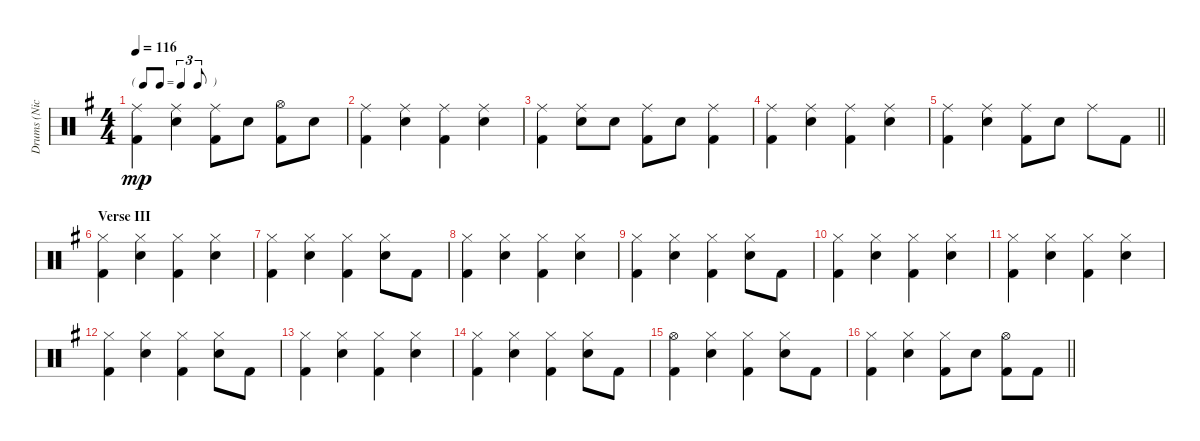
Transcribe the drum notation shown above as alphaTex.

\track ("Drums (Nick Mason)" "Drums (Nic") {instrument percussion}
\staff {score}
\articulation defaults
\ts (4 4)
\tf triplet8th
\tempo 116
\clef neutral
\ks g
("Ride (middle)" "Kick (hit) 2").4{dy mp} ("Ride (middle)" "Snare (hit) 2").4 ("Ride (middle)" "Kick (hit) 2").8 "Snare (hit) 2".8 ("Hi-Hat (open)" "Kick (hit) 2").8 "Snare (hit) 2".8 |
("Ride (middle)" "Kick (hit) 2").4 ("Ride (middle)" "Snare (hit) 2").4 ("Ride (middle)" "Kick (hit) 2").4 ("Ride (middle)" "Snare (hit) 2").4 |
("Ride (middle)" "Kick (hit) 2").4 ("Ride (middle)" "Snare (hit) 2").8 "Snare (hit) 2".8 ("Ride (middle)" "Kick (hit) 2").8 "Snare (hit) 2".8 ("Ride (middle)" "Kick (hit) 2").4 |
("Ride (middle)" "Kick (hit) 2").4 ("Ride (middle)" "Snare (hit) 2").4 ("Ride (middle)" "Kick (hit) 2").4 ("Ride (middle)" "Snare (hit) 2").4 |
\barLineRight lightlight
("Ride (middle)" "Kick (hit) 2").4 ("Ride (middle)" "Snare (hit) 2").4 ("Ride (middle)" "Kick (hit) 2").8 "Snare (hit) 2".8 "Ride (middle)".8 "Kick (hit) 2".8 |
\section ("" "Verse III")
("Hi-Hat (closed)" "Kick (hit) 2").4 ("Hi-Hat (closed)" "Snare (hit) 2").4 ("Hi-Hat (closed)" "Kick (hit) 2").4 ("Hi-Hat (closed)" "Snare (hit) 2").4 |
("Hi-Hat (closed)" "Kick (hit) 2").4 ("Hi-Hat (closed)" "Snare (hit) 2").4 ("Hi-Hat (closed)" "Kick (hit) 2").4 ("Hi-Hat (closed)" "Snare (hit) 2").8 "Kick (hit) 2".8 |
("Hi-Hat (closed)" "Kick (hit) 2").4 ("Hi-Hat (closed)" "Snare (hit) 2").4 ("Hi-Hat (closed)" "Kick (hit) 2").4 ("Hi-Hat (closed)" "Snare (hit) 2").4 |
("Hi-Hat (closed)" "Kick (hit) 2").4 ("Hi-Hat (closed)" "Snare (hit) 2").4 ("Hi-Hat (closed)" "Kick (hit) 2").4 ("Hi-Hat (closed)" "Snare (hit) 2").8 "Kick (hit) 2".8 |
("Hi-Hat (closed)" "Kick (hit) 2").4 ("Hi-Hat (closed)" "Snare (hit) 2").4 ("Hi-Hat (closed)" "Kick (hit) 2").4 ("Hi-Hat (closed)" "Snare (hit) 2").4 |
("Hi-Hat (closed)" "Kick (hit) 2").4 ("Hi-Hat (closed)" "Snare (hit) 2").4 ("Hi-Hat (closed)" "Kick (hit) 2").4 ("Hi-Hat (closed)" "Snare (hit) 2").4 |
("Hi-Hat (closed)" "Kick (hit) 2").4 ("Hi-Hat (closed)" "Snare (hit) 2").4 ("Hi-Hat (closed)" "Kick (hit) 2").4 ("Hi-Hat (closed)" "Snare (hit) 2").8 "Kick (hit) 2".8 |
("Hi-Hat (closed)" "Kick (hit) 2").4 ("Hi-Hat (closed)" "Snare (hit) 2").4 ("Hi-Hat (closed)" "Kick (hit) 2").4 ("Hi-Hat (closed)" "Snare (hit) 2").4 |
("Hi-Hat (closed)" "Kick (hit) 2").4 ("Hi-Hat (closed)" "Snare (hit) 2").4 ("Hi-Hat (closed)" "Kick (hit) 2").4 ("Hi-Hat (closed)" "Snare (hit) 2").8 "Kick (hit) 2".8 |
("Hi-Hat (open)" "Kick (hit) 2").4 ("Hi-Hat (closed)" "Snare (hit) 2").4 ("Hi-Hat (closed)" "Kick (hit) 2").4 ("Hi-Hat (closed)" "Snare (hit) 2").8 "Kick (hit) 2".8 |
\barLineRight lightlight
("Hi-Hat (closed)" "Kick (hit) 2").4 ("Hi-Hat (closed)" "Snare (hit) 2").4 ("Hi-Hat (closed)" "Kick (hit) 2").8 "Snare (hit) 2".8 ("Hi-Hat (open)" "Kick (hit) 2").8 "Kick (hit) 2".8
